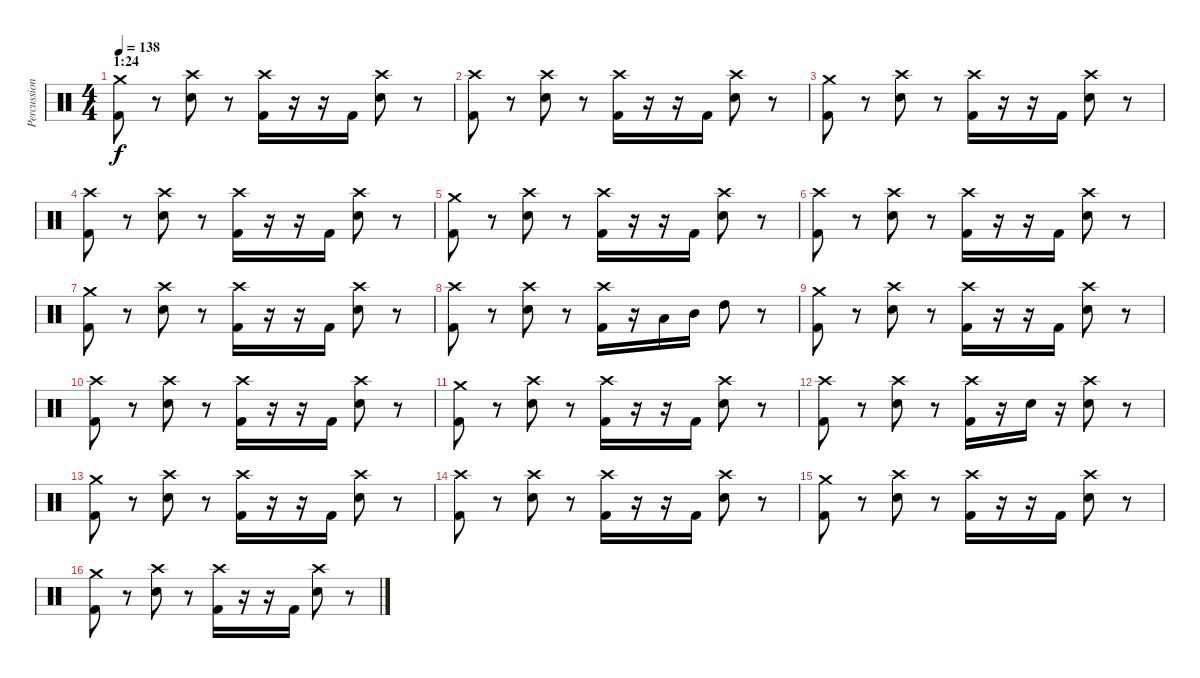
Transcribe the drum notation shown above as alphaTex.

\track ("Percussion" "Percussion") {instrument percussion}
\staff {score}
\articulation defaults
\ts (4 4)
\section ("" "1:24")
\tempo 138
\clef neutral
\ks c
("Crash medium (hit)" "Kick (hit) 2").8{dy f} r.8 ("Crash high (hit)" "Electric Snare (hit)").8 r.8 ("Crash high (hit)" "Kick (hit) 2").16 r.16 r.16 "Kick (hit) 2".16 ("Crash high (hit)" "Electric Snare (hit)").8 r.8 |
("Crash high (hit)" "Kick (hit) 2").8 r.8 ("Crash high (hit)" "Electric Snare (hit)").8 r.8 ("Crash high (hit)" "Kick (hit) 2").16 r.16 r.16 "Kick (hit) 2".16 ("Crash high (hit)" "Electric Snare (hit)").8 r.8 |
("Crash medium (hit)" "Kick (hit) 2").8 r.8 ("Crash high (hit)" "Electric Snare (hit)").8 r.8 ("Crash high (hit)" "Kick (hit) 2").16 r.16 r.16 "Kick (hit) 2".16 ("Crash high (hit)" "Electric Snare (hit)").8 r.8 |
("Crash high (hit)" "Kick (hit) 2").8 r.8 ("Crash high (hit)" "Electric Snare (hit)").8 r.8 ("Crash high (hit)" "Kick (hit) 2").16 r.16 r.16 "Kick (hit) 2".16 ("Crash high (hit)" "Electric Snare (hit)").8 r.8 |
("Crash medium (hit)" "Kick (hit) 2").8 r.8 ("Crash high (hit)" "Electric Snare (hit)").8 r.8 ("Crash high (hit)" "Kick (hit) 2").16 r.16 r.16 "Kick (hit) 2".16 ("Crash high (hit)" "Electric Snare (hit)").8 r.8 |
("Crash high (hit)" "Kick (hit) 2").8 r.8 ("Crash high (hit)" "Electric Snare (hit)").8 r.8 ("Crash high (hit)" "Kick (hit) 2").16 r.16 r.16 "Kick (hit) 2".16 ("Crash high (hit)" "Electric Snare (hit)").8 r.8 |
("Crash medium (hit)" "Kick (hit) 2").8 r.8 ("Crash high (hit)" "Electric Snare (hit)").8 r.8 ("Crash high (hit)" "Kick (hit) 2").16 r.16 r.16 "Kick (hit) 2".16 ("Crash high (hit)" "Electric Snare (hit)").8 r.8 |
("Crash high (hit)" "Kick (hit) 2").8 r.8 ("Crash high (hit)" "Electric Snare (hit)").8 r.8 ("Crash high (hit)" "Kick (hit) 2").16 r.16 "Low Tom (hit)".16 "Mid Tom (hit)".16 "High Tom (hit)".8 r.8 |
("Crash medium (hit)" "Kick (hit) 2").8 r.8 ("Crash high (hit)" "Electric Snare (hit)").8 r.8 ("Crash high (hit)" "Kick (hit) 2").16 r.16 r.16 "Kick (hit) 2".16 ("Crash high (hit)" "Electric Snare (hit)").8 r.8 |
("Crash high (hit)" "Kick (hit) 2").8 r.8 ("Crash high (hit)" "Electric Snare (hit)").8 r.8 ("Crash high (hit)" "Kick (hit) 2").16 r.16 r.16 "Kick (hit) 2".16 ("Crash high (hit)" "Electric Snare (hit)").8 r.8 |
("Crash medium (hit)" "Kick (hit) 2").8 r.8 ("Crash high (hit)" "Electric Snare (hit)").8 r.8 ("Crash high (hit)" "Kick (hit) 2").16 r.16 r.16 "Kick (hit) 2".16 ("Crash high (hit)" "Electric Snare (hit)").8 r.8 |
("Crash high (hit)" "Kick (hit) 2").8 r.8 ("Crash high (hit)" "Electric Snare (hit)").8 r.8 ("Crash high (hit)" "Kick (hit) 2").16 r.16 "Electric Snare (hit)".16 r.16 ("Crash high (hit)" "Electric Snare (hit)").8 r.8 |
("Crash medium (hit)" "Kick (hit) 2").8 r.8 ("Crash high (hit)" "Electric Snare (hit)").8 r.8 ("Crash high (hit)" "Kick (hit) 2").16 r.16 r.16 "Kick (hit) 2".16 ("Crash high (hit)" "Electric Snare (hit)").8 r.8 |
("Crash high (hit)" "Kick (hit) 2").8 r.8 ("Crash high (hit)" "Electric Snare (hit)").8 r.8 ("Crash high (hit)" "Kick (hit) 2").16 r.16 r.16 "Kick (hit) 2".16 ("Crash high (hit)" "Electric Snare (hit)").8 r.8 |
("Crash medium (hit)" "Kick (hit) 2").8 r.8 ("Crash high (hit)" "Electric Snare (hit)").8 r.8 ("Crash high (hit)" "Kick (hit) 2").16 r.16 r.16 "Kick (hit) 2".16 ("Crash high (hit)" "Electric Snare (hit)").8 r.8 |
("Crash medium (hit)" "Kick (hit) 2").8 r.8 ("Crash high (hit)" "Electric Snare (hit)").8 r.8 ("Crash high (hit)" "Kick (hit) 2").16 r.16 r.16 "Kick (hit) 2".16 ("Crash high (hit)" "Electric Snare (hit)").8 r.8
